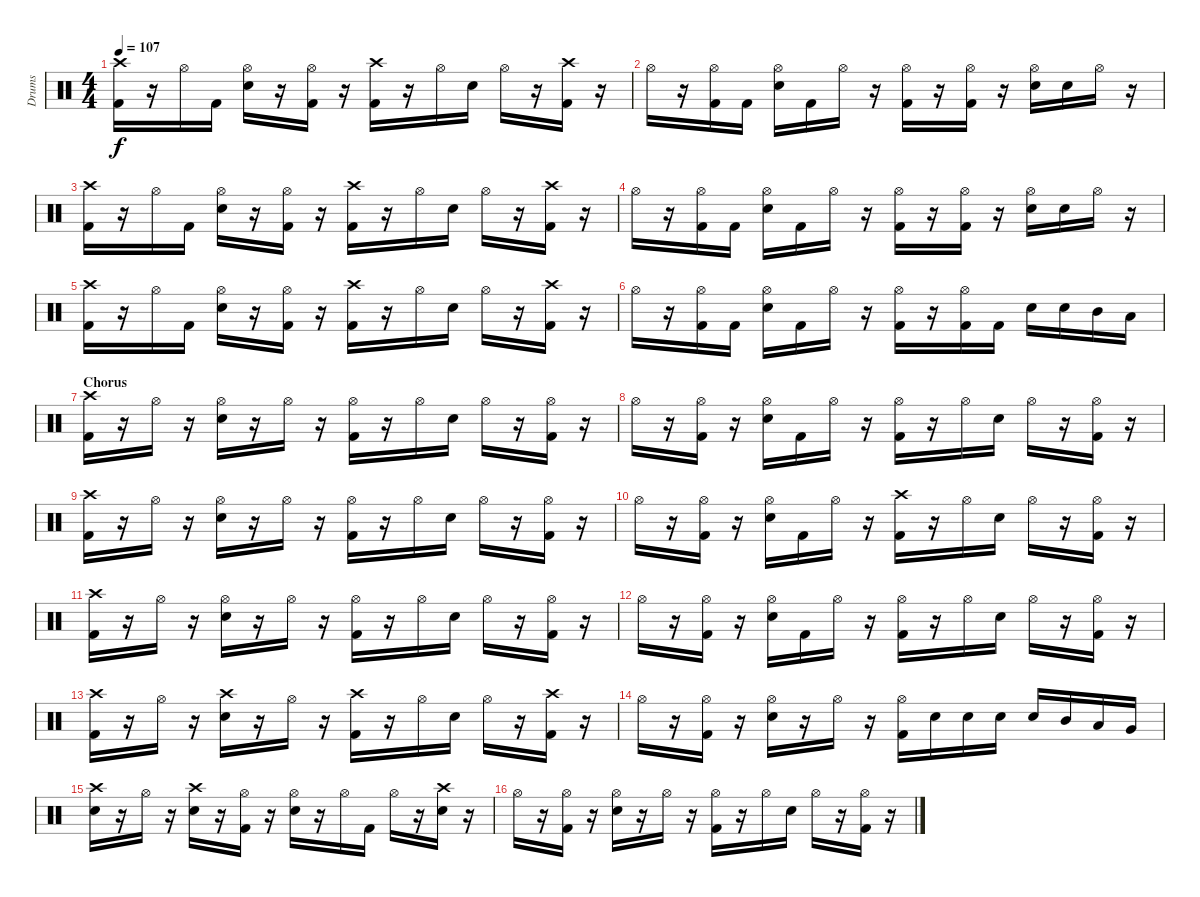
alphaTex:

\track ("Drums" "Drums") {instrument percussion}
\staff {score}
\articulation defaults
\ts (4 4)
\tempo 107
\clef neutral
\ks c
("Crash high (hit)" "Kick (hit) 2").16{dy f} r.16 "Hi-Hat (open)".16 "Kick (hit) 2".16 ("Hi-Hat (open)" "Electric Snare (hit)").16 r.16 ("Hi-Hat (open)" "Kick (hit) 2").16 r.16 ("Crash high (hit)" "Kick (hit) 2").16 r.16 "Hi-Hat (open)".16 "Electric Snare (hit)".16 "Hi-Hat (open)".16 r.16 ("Crash high (hit)" "Kick (hit) 2").16 r.16 |
"Hi-Hat (open)".16 r.16 ("Hi-Hat (open)" "Kick (hit) 2").16 "Kick (hit) 2".16 ("Hi-Hat (open)" "Electric Snare (hit)").16 "Kick (hit) 2".16 "Hi-Hat (open)".16 r.16 ("Hi-Hat (open)" "Kick (hit) 2").16 r.16 ("Hi-Hat (open)" "Kick (hit) 2").16 r.16 ("Hi-Hat (open)" "Electric Snare (hit)").16 "Electric Snare (hit)".16 "Hi-Hat (open)".16 r.16 |
("Crash high (hit)" "Kick (hit) 2").16 r.16 "Hi-Hat (open)".16 "Kick (hit) 2".16 ("Hi-Hat (open)" "Electric Snare (hit)").16 r.16 ("Hi-Hat (open)" "Kick (hit) 2").16 r.16 ("Crash high (hit)" "Kick (hit) 2").16 r.16 "Hi-Hat (open)".16 "Electric Snare (hit)".16 "Hi-Hat (open)".16 r.16 ("Crash high (hit)" "Kick (hit) 2").16 r.16 |
"Hi-Hat (open)".16 r.16 ("Hi-Hat (open)" "Kick (hit) 2").16 "Kick (hit) 2".16 ("Hi-Hat (open)" "Electric Snare (hit)").16 "Kick (hit) 2".16 "Hi-Hat (open)".16 r.16 ("Hi-Hat (open)" "Kick (hit) 2").16 r.16 ("Hi-Hat (open)" "Kick (hit) 2").16 r.16 ("Hi-Hat (open)" "Electric Snare (hit)").16 "Electric Snare (hit)".16 "Hi-Hat (open)".16 r.16 |
("Crash high (hit)" "Kick (hit) 2").16 r.16 "Hi-Hat (open)".16 "Kick (hit) 2".16 ("Hi-Hat (open)" "Electric Snare (hit)").16 r.16 ("Hi-Hat (open)" "Kick (hit) 2").16 r.16 ("Crash high (hit)" "Kick (hit) 2").16 r.16 "Hi-Hat (open)".16 "Electric Snare (hit)".16 "Hi-Hat (open)".16 r.16 ("Crash high (hit)" "Kick (hit) 2").16 r.16 |
"Hi-Hat (open)".16 r.16 ("Hi-Hat (open)" "Kick (hit) 2").16 "Kick (hit) 2".16 ("Hi-Hat (open)" "Electric Snare (hit)").16 "Kick (hit) 2".16 "Hi-Hat (open)".16 r.16 ("Hi-Hat (open)" "Kick (hit) 2").16 r.16 ("Hi-Hat (open)" "Kick (hit) 2").16 "Kick (hit) 2".16 "Electric Snare (hit)".16 "Electric Snare (hit)".16 "Mid Tom (hit)".16 "Low Tom (hit)".16 |
\section ("" "Chorus")
("Crash high (hit)" "Kick (hit) 2").16 r.16 "Hi-Hat (open)".16 r.16 ("Hi-Hat (open)" "Electric Snare (hit)").16 r.16 "Hi-Hat (open)".16 r.16 ("Hi-Hat (open)" "Kick (hit) 2").16 r.16 "Hi-Hat (open)".16 "Electric Snare (hit)".16 "Hi-Hat (open)".16 r.16 ("Hi-Hat (open)" "Kick (hit) 2").16 r.16 |
"Hi-Hat (open)".16 r.16 ("Hi-Hat (open)" "Kick (hit) 2").16 r.16 ("Hi-Hat (open)" "Electric Snare (hit)").16 "Kick (hit) 2".16 "Hi-Hat (open)".16 r.16 ("Hi-Hat (open)" "Kick (hit) 2").16 r.16 "Hi-Hat (open)".16 "Electric Snare (hit)".16 "Hi-Hat (open)".16 r.16 ("Hi-Hat (open)" "Kick (hit) 2").16 r.16 |
("Crash high (hit)" "Kick (hit) 2").16 r.16 "Hi-Hat (open)".16 r.16 ("Hi-Hat (open)" "Electric Snare (hit)").16 r.16 "Hi-Hat (open)".16 r.16 ("Hi-Hat (open)" "Kick (hit) 2").16 r.16 "Hi-Hat (open)".16 "Electric Snare (hit)".16 "Hi-Hat (open)".16 r.16 ("Hi-Hat (open)" "Kick (hit) 2").16 r.16 |
"Hi-Hat (open)".16 r.16 ("Hi-Hat (open)" "Kick (hit) 2").16 r.16 ("Hi-Hat (open)" "Electric Snare (hit)").16 "Kick (hit) 2".16 "Hi-Hat (open)".16 r.16 ("Crash high (hit)" "Kick (hit) 2").16 r.16 "Hi-Hat (open)".16 "Electric Snare (hit)".16 "Hi-Hat (open)".16 r.16 ("Hi-Hat (open)" "Kick (hit) 2").16 r.16 |
("Crash high (hit)" "Kick (hit) 2").16 r.16 "Hi-Hat (open)".16 r.16 ("Hi-Hat (open)" "Electric Snare (hit)").16 r.16 "Hi-Hat (open)".16 r.16 ("Hi-Hat (open)" "Kick (hit) 2").16 r.16 "Hi-Hat (open)".16 "Electric Snare (hit)".16 "Hi-Hat (open)".16 r.16 ("Hi-Hat (open)" "Kick (hit) 2").16 r.16 |
"Hi-Hat (open)".16 r.16 ("Hi-Hat (open)" "Kick (hit) 2").16 r.16 ("Hi-Hat (open)" "Electric Snare (hit)").16 "Kick (hit) 2".16 "Hi-Hat (open)".16 r.16 ("Hi-Hat (open)" "Kick (hit) 2").16 r.16 "Hi-Hat (open)".16 "Electric Snare (hit)".16 "Hi-Hat (open)".16 r.16 ("Hi-Hat (open)" "Kick (hit) 2").16 r.16 |
("Crash high (hit)" "Kick (hit) 2").16 r.16 "Hi-Hat (open)".16 r.16 ("Crash high (hit)" "Electric Snare (hit)").16 r.16 "Hi-Hat (open)".16 r.16 ("Crash high (hit)" "Kick (hit) 2").16 r.16 "Hi-Hat (open)".16 "Electric Snare (hit)".16 "Hi-Hat (open)".16 r.16 ("Crash high (hit)" "Kick (hit) 2").16 r.16 |
"Hi-Hat (open)".16 r.16 ("Hi-Hat (open)" "Kick (hit) 2").16 r.16 ("Hi-Hat (open)" "Electric Snare (hit)").16 r.16 "Hi-Hat (open)".16 r.16 ("Hi-Hat (open)" "Kick (hit) 2").16 "Electric Snare (hit)".16 "Electric Snare (hit)".16 "Electric Snare (hit)".16 "Electric Snare (hit)".16 "Mid Tom (hit)".16 "Low Tom (hit)".16 "Very Low Tom (hit)".16 |
("Crash high (hit)" "Electric Snare (hit)").16 r.16 "Hi-Hat (open)".16 r.16 ("Crash high (hit)" "Electric Snare (hit)").16 r.16 ("Hi-Hat (open)" "Kick (hit) 2").16 r.16 ("Hi-Hat (open)" "Electric Snare (hit)").16 r.16 "Hi-Hat (open)".16 "Kick (hit) 2".16 "Hi-Hat (open)".16 r.16 ("Crash high (hit)" "Electric Snare (hit)").16 r.16 |
"Hi-Hat (open)".16 r.16 ("Hi-Hat (open)" "Kick (hit) 2").16 r.16 ("Hi-Hat (open)" "Electric Snare (hit)").16 r.16 "Hi-Hat (open)".16 r.16 ("Hi-Hat (open)" "Kick (hit) 2").16 r.16 "Hi-Hat (open)".16 "Electric Snare (hit)".16 "Hi-Hat (open)".16 r.16 ("Hi-Hat (open)" "Kick (hit) 2").16 r.16
